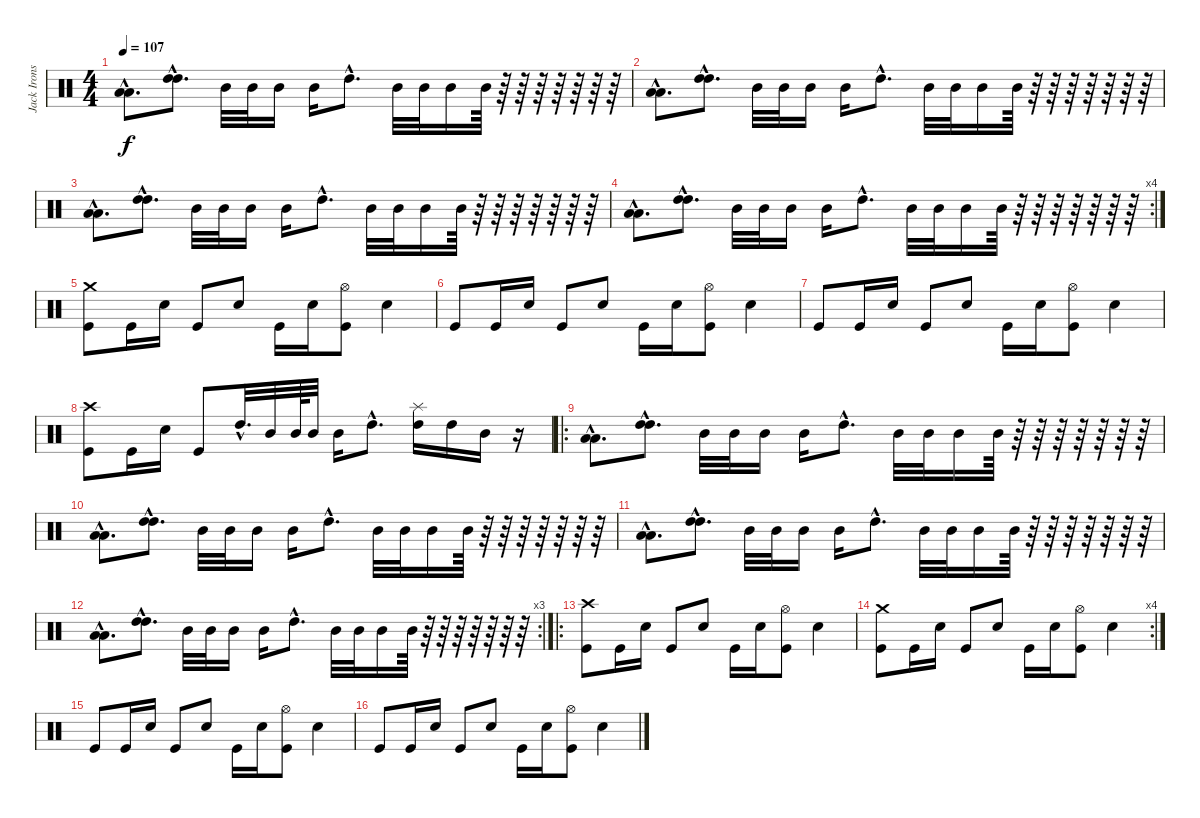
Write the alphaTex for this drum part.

\track ("Jack Irons" "Jack Irons") {instrument percussion}
\staff {score}
\articulation defaults
\ts (4 4)
\tempo 107
\clef neutral
\ks c
("Low Tom (hit)"{hac} "Low Tom (hit)"{hac}).8{d dy f} ("High Tom (hit)"{hac} "High Tom (hit)"{hac}).8{d} "Mid Tom (hit)".32 "Mid Tom (hit)".32 "Mid Tom (hit)".16 "Mid Tom (hit)".16 "High Tom (hit)"{hac}.8{d} "Mid Tom (hit)".32 "Mid Tom (hit)".32 "Mid Tom (hit)".16 "Mid Tom (hit)".64 r.64 r.64 r.64 r.64 r.64 r.64 r.64 |
("Low Tom (hit)"{hac} "Low Tom (hit)"{hac}).8{d} ("High Tom (hit)"{hac} "High Tom (hit)"{hac}).8{d} "Mid Tom (hit)".32 "Mid Tom (hit)".32 "Mid Tom (hit)".16 "Mid Tom (hit)".16 "High Tom (hit)"{hac}.8{d} "Mid Tom (hit)".32 "Mid Tom (hit)".32 "Mid Tom (hit)".16 "Mid Tom (hit)".64 r.64 r.64 r.64 r.64 r.64 r.64 r.64 |
("Low Tom (hit)"{hac} "Low Tom (hit)"{hac}).8{d} ("High Tom (hit)"{hac} "High Tom (hit)"{hac}).8{d} "Mid Tom (hit)".32 "Mid Tom (hit)".32 "Mid Tom (hit)".16 "Mid Tom (hit)".16 "High Tom (hit)"{hac}.8{d} "Mid Tom (hit)".32 "Mid Tom (hit)".32 "Mid Tom (hit)".16 "Mid Tom (hit)".64 r.64 r.64 r.64 r.64 r.64 r.64 r.64 |
\rc 4
("Low Tom (hit)"{hac} "Low Tom (hit)"{hac}).8{d} ("High Tom (hit)"{hac} "High Tom (hit)"{hac}).8{d} "Mid Tom (hit)".32 "Mid Tom (hit)".32 "Mid Tom (hit)".16 "Mid Tom (hit)".16 "High Tom (hit)"{hac}.8{d} "Mid Tom (hit)".32 "Mid Tom (hit)".32 "Mid Tom (hit)".16 "Mid Tom (hit)".64 r.64 r.64 r.64 r.64 r.64 r.64 r.64 |
("Crash medium (hit)" "Kick (hit)").8 "Kick (hit)".16 "Electric Snare (hit)".16 "Kick (hit)".8 "Electric Snare (hit)".8 "Kick (hit)".16 "Electric Snare (hit)".16 ("Hi-Hat (open)" "Kick (hit)").8 "Electric Snare (hit)".4 |
"Kick (hit)".8 "Kick (hit)".16 "Electric Snare (hit)".16 "Kick (hit)".8 "Electric Snare (hit)".8 "Kick (hit)".16 "Electric Snare (hit)".16 ("Hi-Hat (open)" "Kick (hit)").8 "Electric Snare (hit)".4 |
"Kick (hit)".8 "Kick (hit)".16 "Electric Snare (hit)".16 "Kick (hit)".8 "Electric Snare (hit)".8 "Kick (hit)".16 "Electric Snare (hit)".16 ("Hi-Hat (open)" "Kick (hit)").8 "Electric Snare (hit)".4 |
("Crash high (hit)" "Kick (hit)").8 "Kick (hit)".16 "Electric Snare (hit)".16 "Kick (hit)".8 "High Tom (hit)"{hac}.32{d} "Mid Tom (hit)".32 "Mid Tom (hit)".64 "Mid Tom (hit)".32 "Mid Tom (hit)".16 "High Tom (hit)"{hac}.8{d} ("Splash (hit)" "High Tom (hit)").16 "High Tom (hit)".16 "Mid Tom (hit)".16 r.16 |
\ro
("Low Tom (hit)"{hac} "Low Tom (hit)"{hac}).8{d} ("High Tom (hit)"{hac} "High Tom (hit)"{hac}).8{d} "Mid Tom (hit)".32 "Mid Tom (hit)".32 "Mid Tom (hit)".16 "Mid Tom (hit)".16 "High Tom (hit)"{hac}.8{d} "Mid Tom (hit)".32 "Mid Tom (hit)".32 "Mid Tom (hit)".16 "Mid Tom (hit)".64 r.64 r.64 r.64 r.64 r.64 r.64 r.64 |
("Low Tom (hit)"{hac} "Low Tom (hit)"{hac}).8{d} ("High Tom (hit)"{hac} "High Tom (hit)"{hac}).8{d} "Mid Tom (hit)".32 "Mid Tom (hit)".32 "Mid Tom (hit)".16 "Mid Tom (hit)".16 "High Tom (hit)"{hac}.8{d} "Mid Tom (hit)".32 "Mid Tom (hit)".32 "Mid Tom (hit)".16 "Mid Tom (hit)".64 r.64 r.64 r.64 r.64 r.64 r.64 r.64 |
("Low Tom (hit)"{hac} "Low Tom (hit)"{hac}).8{d} ("High Tom (hit)"{hac} "High Tom (hit)"{hac}).8{d} "Mid Tom (hit)".32 "Mid Tom (hit)".32 "Mid Tom (hit)".16 "Mid Tom (hit)".16 "High Tom (hit)"{hac}.8{d} "Mid Tom (hit)".32 "Mid Tom (hit)".32 "Mid Tom (hit)".16 "Mid Tom (hit)".64 r.64 r.64 r.64 r.64 r.64 r.64 r.64 |
\rc 3
("Low Tom (hit)"{hac} "Low Tom (hit)"{hac}).8{d} ("High Tom (hit)"{hac} "High Tom (hit)"{hac}).8{d} "Mid Tom (hit)".32 "Mid Tom (hit)".32 "Mid Tom (hit)".16 "Mid Tom (hit)".16 "High Tom (hit)"{hac}.8{d} "Mid Tom (hit)".32 "Mid Tom (hit)".32 "Mid Tom (hit)".16 "Mid Tom (hit)".64 r.64 r.64 r.64 r.64 r.64 r.64 r.64 |
\ro
("Crash high (hit)" "Kick (hit)").8 "Kick (hit)".16 "Electric Snare (hit)".16 "Kick (hit)".8 "Electric Snare (hit)".8 "Kick (hit)".16 "Electric Snare (hit)".16 ("Hi-Hat (open)" "Kick (hit)").8 "Electric Snare (hit)".4 |
\rc 4
("Crash medium (hit)" "Kick (hit)").8 "Kick (hit)".16 "Electric Snare (hit)".16 "Kick (hit)".8 "Electric Snare (hit)".8 "Kick (hit)".16 "Electric Snare (hit)".16 ("Hi-Hat (open)" "Kick (hit)").8 "Electric Snare (hit)".4 |
"Kick (hit)".8 "Kick (hit)".16 "Electric Snare (hit)".16 "Kick (hit)".8 "Electric Snare (hit)".8 "Kick (hit)".16 "Electric Snare (hit)".16 ("Hi-Hat (open)" "Kick (hit)").8 "Electric Snare (hit)".4 |
"Kick (hit)".8 "Kick (hit)".16 "Electric Snare (hit)".16 "Kick (hit)".8 "Electric Snare (hit)".8 "Kick (hit)".16 "Electric Snare (hit)".16 ("Hi-Hat (open)" "Kick (hit)").8 "Electric Snare (hit)".4
